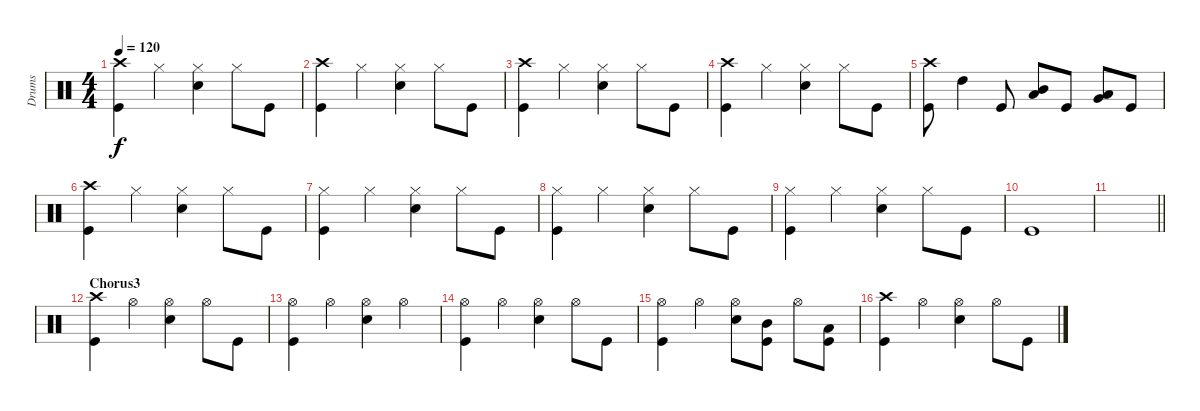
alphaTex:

\track ("Drums" "Drums") {instrument percussion}
\staff {score}
\articulation defaults
\ts (4 4)
\tempo 120
\clef neutral
\ks c
("Crash high (hit)" "Kick (hit)").4{dy f} "Hi-Hat (closed)".4 ("Hi-Hat (closed)" "Snare (hit) 2").4 "Hi-Hat (closed)".8 "Kick (hit)".8 |
("Crash high (hit)" "Kick (hit)").4 "Hi-Hat (closed)".4 ("Hi-Hat (closed)" "Snare (hit) 2").4 "Hi-Hat (closed)".8 "Kick (hit)".8 |
("Crash high (hit)" "Kick (hit)").4 "Hi-Hat (closed)".4 ("Hi-Hat (closed)" "Snare (hit) 2").4 "Hi-Hat (closed)".8 "Kick (hit)".8 |
("Crash high (hit)" "Kick (hit)").4 "Hi-Hat (closed)".4 ("Hi-Hat (closed)" "Snare (hit) 2").4 "Hi-Hat (closed)".8 "Kick (hit)".8 |
("Crash high (hit)" "Kick (hit)").8 "High Tom (hit)".4 "Kick (hit)".8 ("Mid Tom (hit)" "Low Tom (hit)").8 "Kick (hit)".8 ("Low Tom (hit)" "Very Low Tom (hit)").8 "Kick (hit)".8 |
("Crash high (hit)" "Kick (hit)").4 "Hi-Hat (closed)".4 ("Hi-Hat (closed)" "Snare (hit) 2").4 "Hi-Hat (closed)".8 "Kick (hit)".8 |
("Hi-Hat (closed)" "Kick (hit)").4 "Hi-Hat (closed)".4 ("Hi-Hat (closed)" "Snare (hit) 2").4 "Hi-Hat (closed)".8 "Kick (hit)".8 |
("Hi-Hat (closed)" "Kick (hit)").4 "Hi-Hat (closed)".4 ("Hi-Hat (closed)" "Snare (hit) 2").4 "Hi-Hat (closed)".8 "Kick (hit)".8 |
("Hi-Hat (closed)" "Kick (hit)").4 "Hi-Hat (closed)".4 ("Hi-Hat (closed)" "Snare (hit) 2").4 "Hi-Hat (closed)".8 "Kick (hit)".8 |
"Kick (hit)".1 |
\barLineRight lightlight
|
\section ("" "Chorus3")
("Crash high (hit)" "Kick (hit)").4 "Hi-Hat (open)".4 ("Hi-Hat (open)" "Snare (hit) 2").4 "Hi-Hat (open)".8 "Kick (hit)".8 |
("Hi-Hat (open)" "Kick (hit)").4 "Hi-Hat (open)".4 ("Hi-Hat (open)" "Snare (hit) 2").4 "Hi-Hat (open)".4 |
("Hi-Hat (open)" "Kick (hit)").4 "Hi-Hat (open)".4 ("Hi-Hat (open)" "Snare (hit) 2").4 "Hi-Hat (open)".8 "Kick (hit)".8 |
("Hi-Hat (open)" "Kick (hit)").4 "Hi-Hat (open)".4 ("Hi-Hat (open)" "Snare (hit) 2").8 ("Mid Tom (hit)" "Kick (hit)").8 "Hi-Hat (open)".8 ("Low Tom (hit)" "Kick (hit)").8 |
("Crash high (hit)" "Kick (hit)").4 "Hi-Hat (open)".4 ("Hi-Hat (open)" "Snare (hit) 2").4 "Hi-Hat (open)".8 "Kick (hit)".8
